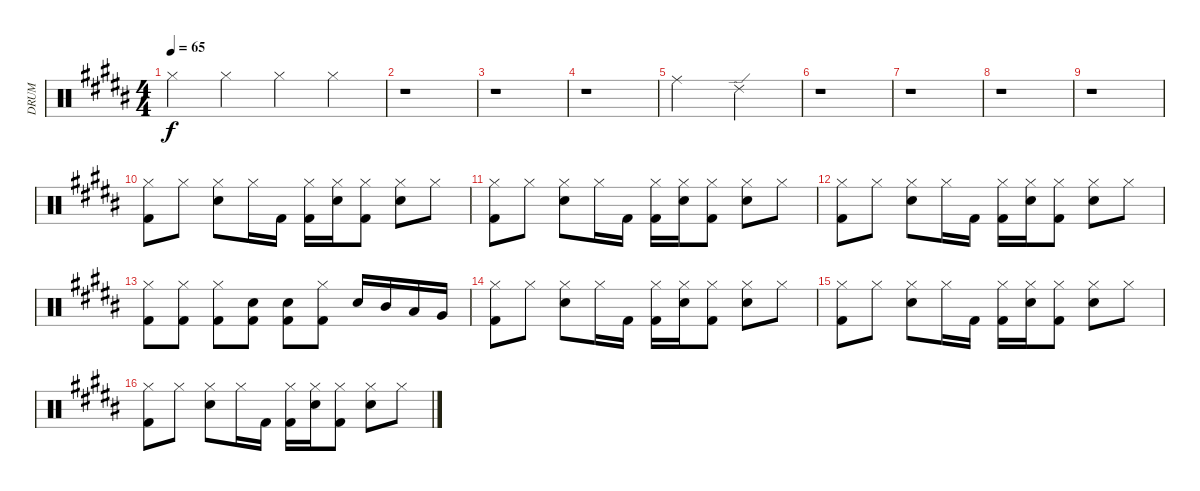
\track ("DRUM" "DRUM") {instrument percussion}
\staff {score}
\articulation defaults
\ts (4 4)
\tempo 65
\clef neutral
\ks b "Hi-Hat (closed)".4{dy f} "Hi-Hat (closed)".4 "Hi-Hat (closed)".4 "Hi-Hat (closed)".4
|
r.1 |
r.1 |
r.1 |
"Ride (middle)".2 "Ride (edge) 2".2 |
r.1 |
r.1 |
r.1 |
r.1 |
("Hi-Hat (closed)" "Kick (hit) 2").8 "Hi-Hat (closed)".8 ("Hi-Hat (closed)" "Electric Snare (hit)").8 "Hi-Hat (closed)".16 "Kick (hit) 2".16 ("Hi-Hat (closed)" "Kick (hit) 2").16 ("Hi-Hat (closed)" "Electric Snare (hit)").16 ("Hi-Hat (closed)" "Kick (hit) 2").8 ("Hi-Hat (closed)" "Electric Snare (hit)").8 "Hi-Hat (closed)".8 |
("Hi-Hat (closed)" "Kick (hit) 2").8 "Hi-Hat (closed)".8 ("Hi-Hat (closed)" "Electric Snare (hit)").8 "Hi-Hat (closed)".16 "Kick (hit) 2".16 ("Hi-Hat (closed)" "Kick (hit) 2").16 ("Hi-Hat (closed)" "Electric Snare (hit)").16 ("Hi-Hat (closed)" "Kick (hit) 2").8 ("Hi-Hat (closed)" "Electric Snare (hit)").8 "Hi-Hat (closed)".8 |
("Hi-Hat (closed)" "Kick (hit) 2").8 "Hi-Hat (closed)".8 ("Hi-Hat (closed)" "Electric Snare (hit)").8 "Hi-Hat (closed)".16 "Kick (hit) 2".16 ("Hi-Hat (closed)" "Kick (hit) 2").16 ("Hi-Hat (closed)" "Electric Snare (hit)").16 ("Hi-Hat (closed)" "Kick (hit) 2").8 ("Hi-Hat (closed)" "Electric Snare (hit)").8 "Hi-Hat (closed)".8 |
("Hi-Hat (closed)" "Kick (hit) 2").8 ("Hi-Hat (closed)" "Kick (hit) 2").8 ("Hi-Hat (closed)" "Kick (hit) 2").8 ("Electric Snare (hit)" "Kick (hit) 2").8 ("Electric Snare (hit)" "Kick (hit) 2").8 ("Hi-Hat (closed)" "Kick (hit) 2").8 "Electric Snare (hit)".16 "Mid Tom (hit)".16 "Low Tom (hit)".16 "Very Low Tom (hit)".16 |
("Hi-Hat (closed)" "Kick (hit) 2").8 "Hi-Hat (closed)".8 ("Hi-Hat (closed)" "Electric Snare (hit)").8 "Hi-Hat (closed)".16 "Kick (hit) 2".16 ("Hi-Hat (closed)" "Kick (hit) 2").16 ("Hi-Hat (closed)" "Electric Snare (hit)").16 ("Hi-Hat (closed)" "Kick (hit) 2").8 ("Hi-Hat (closed)" "Electric Snare (hit)").8 "Hi-Hat (closed)".8 |
("Hi-Hat (closed)" "Kick (hit) 2").8 "Hi-Hat (closed)".8 ("Hi-Hat (closed)" "Electric Snare (hit)").8 "Hi-Hat (closed)".16 "Kick (hit) 2".16 ("Hi-Hat (closed)" "Kick (hit) 2").16 ("Hi-Hat (closed)" "Electric Snare (hit)").16 ("Hi-Hat (closed)" "Kick (hit) 2").8 ("Hi-Hat (closed)" "Electric Snare (hit)").8 "Hi-Hat (closed)".8 |
("Hi-Hat (closed)" "Kick (hit) 2").8 "Hi-Hat (closed)".8 ("Hi-Hat (closed)" "Electric Snare (hit)").8 "Hi-Hat (closed)".16 "Kick (hit) 2".16 ("Hi-Hat (closed)" "Kick (hit) 2").16 ("Hi-Hat (closed)" "Electric Snare (hit)").16 ("Hi-Hat (closed)" "Kick (hit) 2").8 ("Hi-Hat (closed)" "Electric Snare (hit)").8 "Hi-Hat (closed)".8
